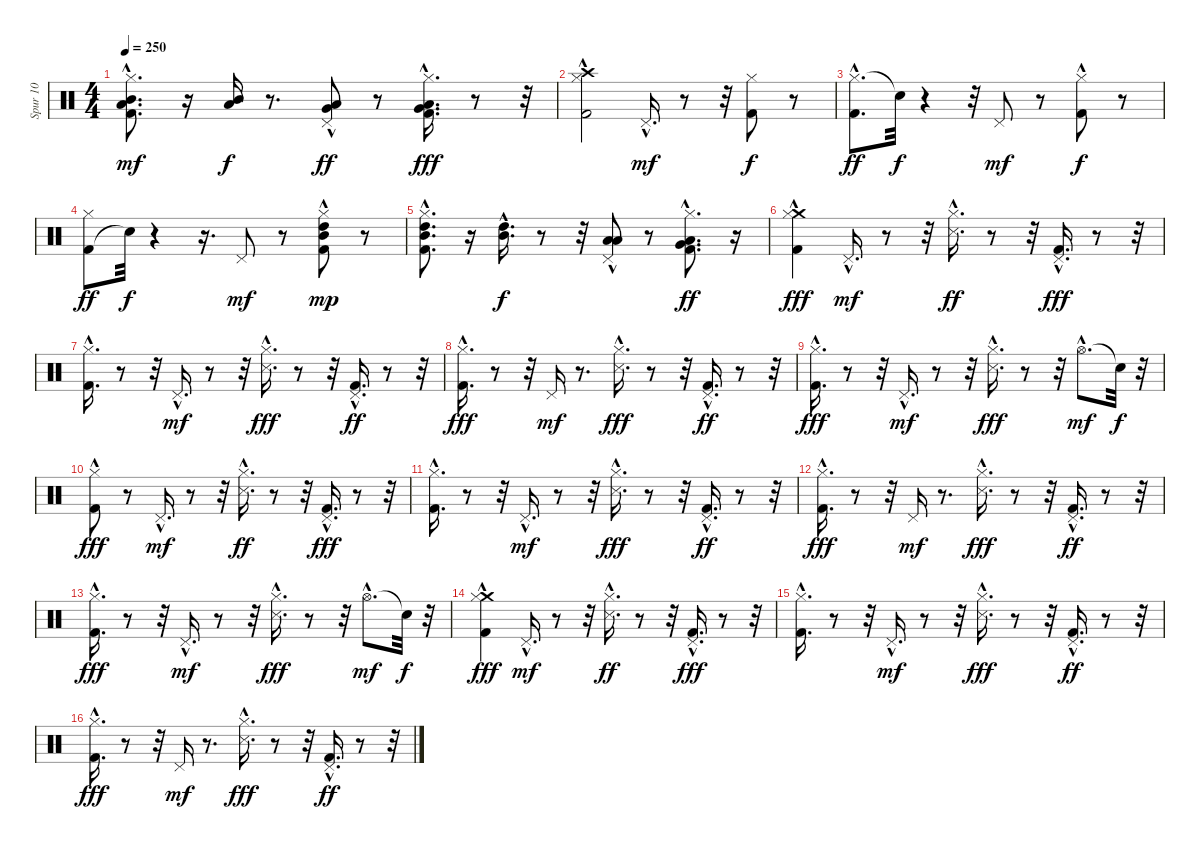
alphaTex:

\track ("Spur 10" "Spur 10") {instrument percussion}
\staff {score}
\articulation defaults
\ts (4 4)
\tempo 250
\clef neutral
\ks c
("Hi-Hat (closed)" "Kick (hit) 2"{hac} "Mid Tom (hit)"{hac} "Low Tom (hit)"{hac}).8{d dy mf} r.16 ("Mid Tom (hit)" "Low Tom (hit)").16{dy f} r.8{d} ("Pedal Hi-Hat (hit)" "Very Low Tom (hit)"{hac} "Low Tom (hit)").8{dy ff} r.8 ("Kick (hit) 2"{hac} "Hi-Hat (closed)"{hac} "Very Low Tom (hit)" "Low Tom (hit)").16{d dy fff} r.8 r.32 |
("Hi-Hat (closed)" "Kick (hit) 2"{hac} "Crash high (hit)"{hac}).2 "Pedal Hi-Hat (hit)"{hac}.16{d dy mf} r.8 r.32 ("Kick (hit) 2" "Hi-Hat (closed)").8{dy f} r.8 |
("Hi-Hat (closed)" "Kick (hit) 2"{hac}).8{d dy ff} "Snare (hit)"{t}.32{dy f} r.4 r.32 "Pedal Hi-Hat (hit)".8{dy mf} r.8 ("Kick (hit) 2" "Hi-Hat (closed)"{hac}).8{dy f} r.8 |
("Kick (hit) 2" "Hi-Hat (closed)").8{dy ff} "Snare (hit)"{t}.32{dy f} r.4 r.16{d} "Pedal Hi-Hat (hit)".8{dy mf} r.8 ("Hi-Hat (closed)"{hac} "Kick (hit) 2" "Mid Tom (hit)"{hac} "High Tom (hit)").8{dy mp} r.8 |
("Mid Tom (hit)"{hac} "Kick (hit) 2"{hac} "Hi-Hat (closed)" "High Tom (hit)"{hac}).8{d} r.16 ("Mid Tom (hit)"{hac} "High Tom (hit)"{hac}).16{d dy f} r.8 r.32 ("Pedal Hi-Hat (hit)" "Low Tom (hit)"{hac} "Low Tom (hit)"{hac}).8 r.8 ("Hi-Hat (closed)"{hac} "Kick (hit) 2"{hac} "Very Low Tom (hit)" "Low Tom (hit)").8{d dy ff} r.16 |
("Crash medium (hit)"{hac} "Hi-Hat (closed)"{hac} "Kick (hit) 2").4{dy fff} "Pedal Hi-Hat (hit)"{hac}.16{d dy mf} r.8 r.32 ("Hi-Hat (closed)"{hac} "Snare (side stick) 3"{hac}).16{d dy ff} r.8 r.32 ("Pedal Hi-Hat (hit)"{hac} "Kick (hit) 2"{hac}).16{d dy fff} r.8 r.32 |
("Hi-Hat (closed)"{hac} "Kick (hit) 2"{hac}).16{d} r.8 r.32 "Pedal Hi-Hat (hit)"{hac}.16{d dy mf} r.8 r.32 ("Hi-Hat (closed)"{hac} "Snare (side stick) 3"{hac}).16{d dy fff} r.8 r.32 ("Pedal Hi-Hat (hit)"{hac} "Kick (hit) 2"{hac}).16{d dy ff} r.8 r.32 |
("Hi-Hat (closed)"{hac} "Kick (hit) 2"{hac}).16{d dy fff} r.8 r.32 "Pedal Hi-Hat (hit)".16{dy mf} r.8{d} ("Hi-Hat (closed)"{hac} "Snare (side stick) 3"{hac}).16{d dy fff} r.8 r.32 ("Pedal Hi-Hat (hit)"{hac} "Kick (hit) 2"{hac}).16{d dy ff} r.8 r.32 |
("Hi-Hat (closed)"{hac} "Kick (hit) 2"{hac}).16{d dy fff} r.8 r.32 "Pedal Hi-Hat (hit)"{hac}.16{d dy mf} r.8 r.32 ("Hi-Hat (closed)"{hac} "Snare (side stick) 3"{hac}).16{d dy fff} r.8 r.32 "Hi-Hat (open)"{hac}.8{d dy mf} "Snare (hit)"{t}.32{dy f} r.32 |
("Hi-Hat (closed)"{hac} "Kick (hit) 2").8{dy fff} r.8 "Pedal Hi-Hat (hit)"{hac}.16{d dy mf} r.8 r.32 ("Hi-Hat (closed)"{hac} "Snare (side stick) 3"{hac}).16{d dy ff} r.8 r.32 ("Pedal Hi-Hat (hit)"{hac} "Kick (hit) 2"{hac}).16{d dy fff} r.8 r.32 |
("Hi-Hat (closed)"{hac} "Kick (hit) 2"{hac}).16{d} r.8 r.32 "Pedal Hi-Hat (hit)"{hac}.16{d dy mf} r.8 r.32 ("Hi-Hat (closed)"{hac} "Snare (side stick) 3"{hac}).16{d dy fff} r.8 r.32 ("Pedal Hi-Hat (hit)"{hac} "Kick (hit) 2"{hac}).16{d dy ff} r.8 r.32 |
("Hi-Hat (closed)"{hac} "Kick (hit) 2"{hac}).16{d dy fff} r.8 r.32 "Pedal Hi-Hat (hit)".16{dy mf} r.8{d} ("Hi-Hat (closed)"{hac} "Snare (side stick) 3"{hac}).16{d dy fff} r.8 r.32 ("Pedal Hi-Hat (hit)"{hac} "Kick (hit) 2"{hac}).16{d dy ff} r.8 r.32 |
("Hi-Hat (closed)"{hac} "Kick (hit) 2"{hac}).16{d dy fff} r.8 r.32 "Pedal Hi-Hat (hit)"{hac}.16{d dy mf} r.8 r.32 ("Hi-Hat (closed)"{hac} "Snare (side stick) 3"{hac}).16{d dy fff} r.8 r.32 "Hi-Hat (open)"{hac}.8{d dy mf} "Snare (hit)"{t}.32{dy f} r.32 |
("Crash medium (hit)"{hac} "Hi-Hat (closed)"{hac} "Kick (hit) 2").4{dy fff} "Pedal Hi-Hat (hit)"{hac}.16{d dy mf} r.8 r.32 ("Hi-Hat (closed)"{hac} "Snare (side stick) 3"{hac}).16{d dy ff} r.8 r.32 ("Pedal Hi-Hat (hit)"{hac} "Kick (hit) 2"{hac}).16{d dy fff} r.8 r.32 |
("Hi-Hat (closed)"{hac} "Kick (hit) 2"{hac}).16{d} r.8 r.32 "Pedal Hi-Hat (hit)"{hac}.16{d dy mf} r.8 r.32 ("Hi-Hat (closed)"{hac} "Snare (side stick) 3"{hac}).16{d dy fff} r.8 r.32 ("Pedal Hi-Hat (hit)"{hac} "Kick (hit) 2"{hac}).16{d dy ff} r.8 r.32 |
("Hi-Hat (closed)"{hac} "Kick (hit) 2"{hac}).16{d dy fff} r.8 r.32 "Pedal Hi-Hat (hit)".16{dy mf} r.8{d} ("Hi-Hat (closed)"{hac} "Snare (side stick) 3"{hac}).16{d dy fff} r.8 r.32 ("Pedal Hi-Hat (hit)"{hac} "Kick (hit) 2"{hac}).16{d dy ff} r.8 r.32
